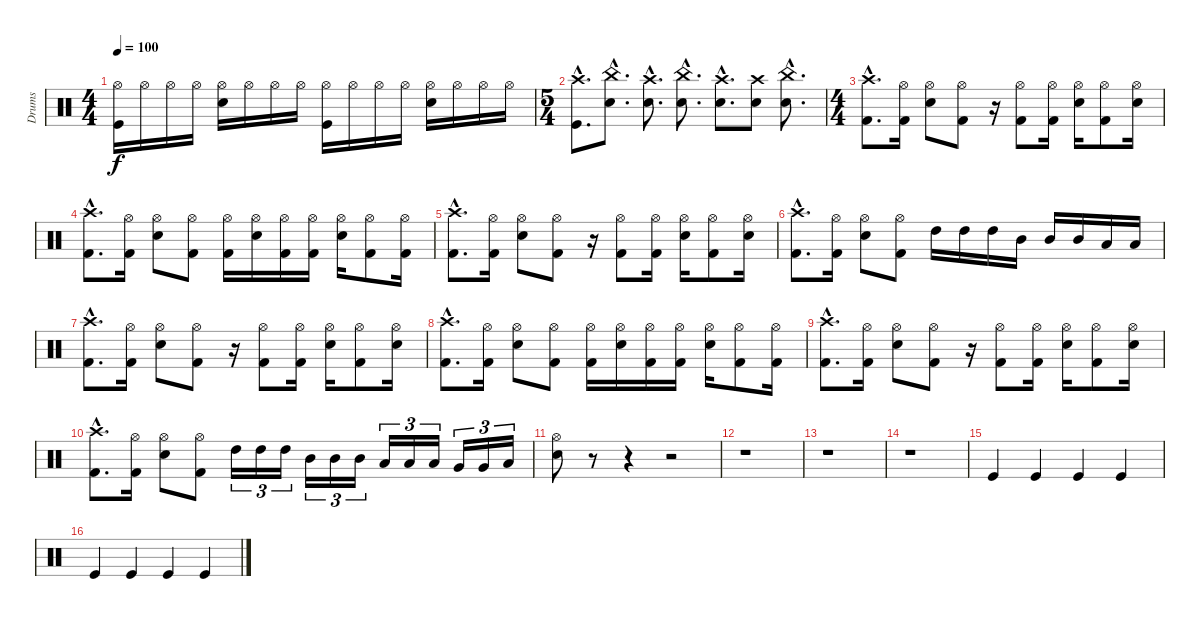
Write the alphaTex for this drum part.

\track ("Drums" "Drums") {instrument percussion}
\staff {score}
\articulation defaults
\ts (4 4)
\tempo 100
\clef neutral
\ks c
("Hi-Hat (open)" "Kick (hit)").16{dy f} "Hi-Hat (open)".16 "Hi-Hat (open)".16 "Hi-Hat (open)".16 ("Hi-Hat (open)" "Electric Snare (hit)").16 "Hi-Hat (open)".16 "Hi-Hat (open)".16 "Hi-Hat (open)".16 ("Hi-Hat (open)" "Kick (hit)").16 "Hi-Hat (open)".16 "Hi-Hat (open)".16 "Hi-Hat (open)".16 ("Hi-Hat (open)" "Electric Snare (hit)").16 "Hi-Hat (open)".16 "Hi-Hat (open)".16 "Hi-Hat (open)".16 |
\ts (5 4)
("Crash high (hit)"{hac} "Kick (hit)"{hac}).8{d} ("China (hit)"{hac} "Electric Snare (hit)"{hac}).8{d} ("Crash high (hit)"{hac} "Electric Snare (hit)"{hac}).8{d} ("China (hit)"{hac} "Electric Snare (hit)"{hac}).8{d} ("Crash high (hit)"{hac} "Electric Snare (hit)"{hac}).8{d} ("Crash high (hit)" "Electric Snare (hit)").8 ("China (hit)"{hac} "Electric Snare (hit)"{hac}).8{d} |
\ts (4 4)
("Crash high (hit)"{hac} "Kick (hit) 2"{hac}).8{d} ("Hi-Hat (open)" "Kick (hit) 2").16 ("Hi-Hat (open)" "Electric Snare (hit)").8 ("Hi-Hat (open)" "Kick (hit) 2").8 r.16 ("Hi-Hat (open)" "Kick (hit) 2").8 ("Hi-Hat (open)" "Kick (hit) 2").16 ("Hi-Hat (open)" "Electric Snare (hit)").16 ("Hi-Hat (open)" "Kick (hit) 2").8 ("Hi-Hat (open)" "Electric Snare (hit)").16 |
("Crash high (hit)"{hac} "Kick (hit) 2"{hac}).8{d} ("Hi-Hat (open)" "Kick (hit) 2").16 ("Hi-Hat (open)" "Electric Snare (hit)").8 ("Hi-Hat (open)" "Kick (hit) 2").8 ("Hi-Hat (open)" "Kick (hit) 2").16 ("Hi-Hat (open)" "Electric Snare (hit)").16 ("Hi-Hat (open)" "Kick (hit) 2").16 ("Hi-Hat (open)" "Kick (hit) 2").16 ("Hi-Hat (open)" "Electric Snare (hit)").16 ("Hi-Hat (open)" "Kick (hit) 2").8 ("Hi-Hat (open)" "Kick (hit) 2").16 |
("Crash high (hit)"{hac} "Kick (hit) 2"{hac}).8{d} ("Hi-Hat (open)" "Kick (hit) 2").16 ("Hi-Hat (open)" "Electric Snare (hit)").8 ("Hi-Hat (open)" "Kick (hit) 2").8 r.16 ("Hi-Hat (open)" "Kick (hit) 2").8 ("Hi-Hat (open)" "Kick (hit) 2").16 ("Hi-Hat (open)" "Electric Snare (hit)").16 ("Hi-Hat (open)" "Kick (hit) 2").8 ("Hi-Hat (open)" "Electric Snare (hit)").16 |
("Crash high (hit)"{hac} "Kick (hit) 2"{hac}).8{d} ("Hi-Hat (open)" "Kick (hit) 2").16 ("Hi-Hat (open)" "Electric Snare (hit)").8 ("Hi-Hat (open)" "Kick (hit) 2").8 "High Tom (hit)".16 "High Tom (hit)".16 "High Tom (hit)".16 "Mid Tom (hit)".16 "Mid Tom (hit)".16 "Mid Tom (hit)".16 "Low Tom (hit)".16 "Low Tom (hit)".16 |
("Crash high (hit)"{hac} "Kick (hit) 2"{hac}).8{d} ("Hi-Hat (open)" "Kick (hit) 2").16 ("Hi-Hat (open)" "Electric Snare (hit)").8 ("Hi-Hat (open)" "Kick (hit) 2").8 r.16 ("Hi-Hat (open)" "Kick (hit) 2").8 ("Hi-Hat (open)" "Kick (hit) 2").16 ("Hi-Hat (open)" "Electric Snare (hit)").16 ("Hi-Hat (open)" "Kick (hit) 2").8 ("Hi-Hat (open)" "Electric Snare (hit)").16 |
("Crash high (hit)"{hac} "Kick (hit) 2"{hac}).8{d} ("Hi-Hat (open)" "Kick (hit) 2").16 ("Hi-Hat (open)" "Electric Snare (hit)").8 ("Hi-Hat (open)" "Kick (hit) 2").8 ("Hi-Hat (open)" "Kick (hit) 2").16 ("Hi-Hat (open)" "Electric Snare (hit)").16 ("Hi-Hat (open)" "Kick (hit) 2").16 ("Hi-Hat (open)" "Kick (hit) 2").16 ("Hi-Hat (open)" "Electric Snare (hit)").16 ("Hi-Hat (open)" "Kick (hit) 2").8 ("Hi-Hat (open)" "Kick (hit) 2").16 |
("Crash high (hit)"{hac} "Kick (hit) 2"{hac}).8{d} ("Hi-Hat (open)" "Kick (hit) 2").16 ("Hi-Hat (open)" "Electric Snare (hit)").8 ("Hi-Hat (open)" "Kick (hit) 2").8 r.16 ("Hi-Hat (open)" "Kick (hit) 2").8 ("Hi-Hat (open)" "Kick (hit) 2").16 ("Hi-Hat (open)" "Electric Snare (hit)").16 ("Hi-Hat (open)" "Kick (hit) 2").8 ("Hi-Hat (open)" "Electric Snare (hit)").16 |
("Crash high (hit)"{hac} "Kick (hit) 2"{hac}).8{d} ("Hi-Hat (open)" "Kick (hit) 2").16 ("Hi-Hat (open)" "Electric Snare (hit)").8 ("Hi-Hat (open)" "Kick (hit) 2").8 "High Tom (hit)".16{tu (3 2)} "High Tom (hit)".16{tu (3 2)} "High Tom (hit)".16{tu (3 2)} "Mid Tom (hit)".16{tu (3 2)} "Mid Tom (hit)".16{tu (3 2)} "Mid Tom (hit)".16{tu (3 2)} "Low Tom (hit)".16{tu (3 2)} "Low Tom (hit)".16{tu (3 2)} "Low Tom (hit)".16{tu (3 2)} "Very Low Tom (hit)".16{tu (3 2)} "Very Low Tom (hit)".16{tu (3 2)} "Low Floor Tom (hit)".16{tu (3 2)} |
("Hi-Hat (open)" "Electric Snare (hit)").8 r.8 r.4 r.2 |
r.1 |
r.1 |
r.1 |
"Kick (hit)".4 "Kick (hit)".4 "Kick (hit)".4 "Kick (hit)".4 |
"Kick (hit)".4 "Kick (hit)".4 "Kick (hit)".4 "Kick (hit)".4
